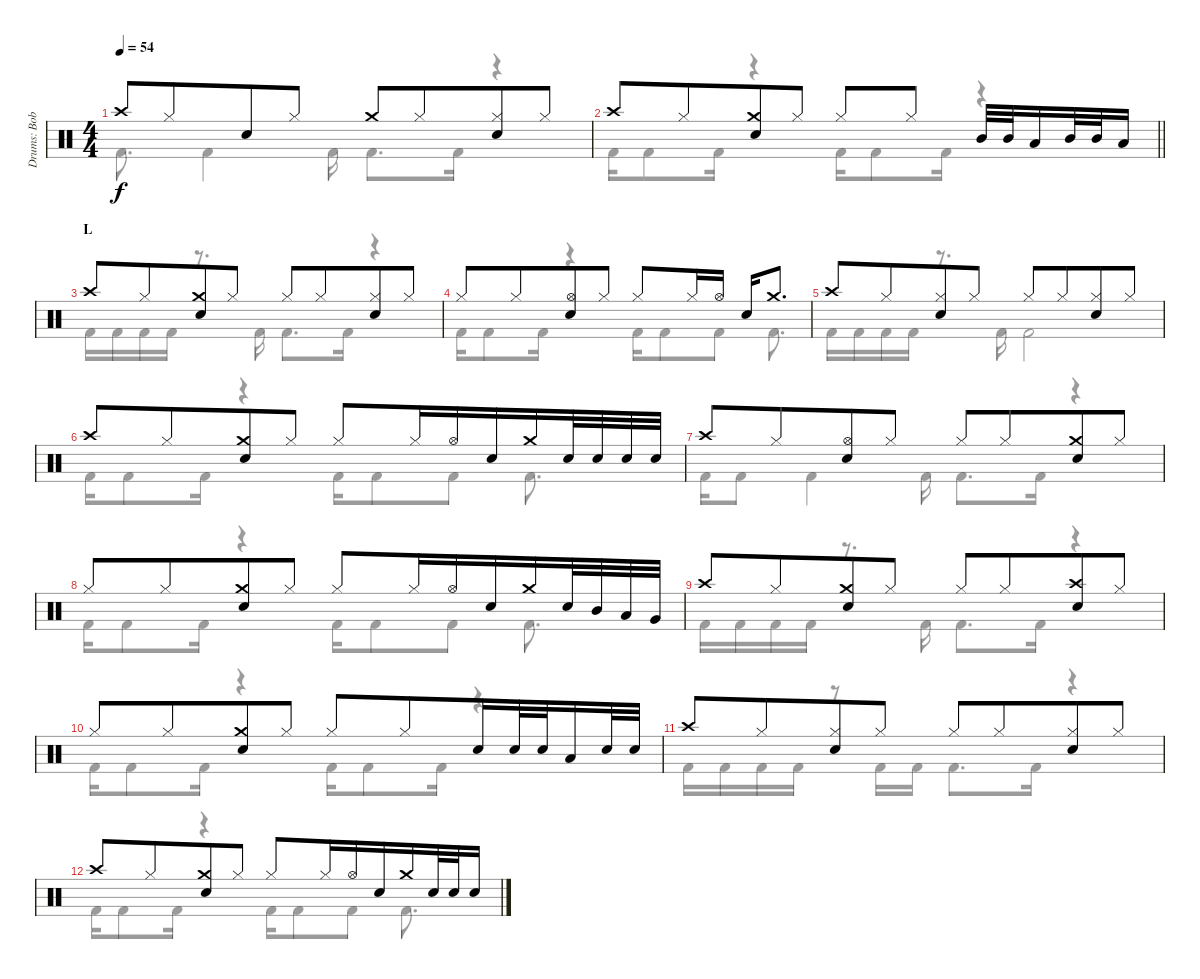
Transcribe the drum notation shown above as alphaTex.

\track ("Drums: Bobby" "Drums: Bob") {instrument percussion}
\staff {score}
\articulation defaults
\voice
\ts (4 4)
\tempo 54
\clef neutral
\ks c "Crash high (hit)".8{dy f} "Hi-Hat (closed)".8{beam merge} "Snare (hit) 2".8 "Hi-Hat (closed)".8 "Crash medium (hit)".8 "Hi-Hat (closed)".8{beam merge}
("Hi-Hat (closed)" "Snare (hit) 2").8 "Hi-Hat (closed)".8 |
\barLineRight lightlight "Crash high (hit)".8 "Hi-Hat (closed)".8{beam merge}
("Crash medium (hit)" "Snare (hit) 2").8 "Hi-Hat (closed)".8 "Hi-Hat (closed)".8 "Hi-Hat (closed)".8 "Mid Tom (hit)".32 "Mid Tom (hit)".32{beam merge} "Low Tom (hit)".16 "Mid Tom (hit)".32 "Mid Tom (hit)".32{beam merge} "Low Tom (hit)".16 |
\section ("" "L")
"Crash high (hit)".8 "Hi-Hat (closed)".8{beam merge} ("Crash medium (hit)" "Snare (hit) 2").8 "Hi-Hat (closed)".8 "Hi-Hat (closed)".8 "Hi-Hat (closed)".8{beam merge} ("Hi-Hat (closed)" "Snare (hit) 2").8 "Hi-Hat (closed)".8 |
"Hi-Hat (closed)".8 "Hi-Hat (closed)".8{beam merge} ("Hi-Hat (open)" "Snare (hit) 2").8 "Hi-Hat (closed)".8 "Hi-Hat (closed)".8 "Hi-Hat (closed)".16{beam merge} "Hi-Hat (open)".16 "Snare (hit) 2".16 "Crash medium (hit)".8{d} |
"Crash high (hit)".8 "Hi-Hat (closed)".8{beam merge} ("Hi-Hat (closed)" "Snare (hit) 2").8 "Hi-Hat (closed)".8 "Hi-Hat (closed)".8 "Hi-Hat (closed)".8{beam merge} ("Hi-Hat (closed)" "Snare (hit) 2").8 "Hi-Hat (closed)".8 |
"Crash high (hit)".8 "Hi-Hat (closed)".8{beam merge} ("Crash medium (hit)" "Snare (hit) 2").8 "Hi-Hat (closed)".8 "Hi-Hat (closed)".8 "Hi-Hat (closed)".16{beam merge} "Hi-Hat (open)".16{beam merge} "Snare (hit) 2".16 "Crash medium (hit)".16 "Electric Snare (hit)".32 "Electric Snare (hit)".32 "Electric Snare (hit)".32 "Electric Snare (hit)".32 |
"Crash high (hit)".8 "Hi-Hat (closed)".8{beam merge} ("Hi-Hat (open)" "Snare (hit) 2").8 "Hi-Hat (closed)".8 "Hi-Hat (closed)".8 "Hi-Hat (closed)".8{beam merge} ("Crash medium (hit)" "Snare (hit) 2").8 "Hi-Hat (closed)".8 |
"Hi-Hat (closed)".8 "Hi-Hat (closed)".8{beam merge} ("Crash medium (hit)" "Snare (hit) 2").8 "Hi-Hat (closed)".8 "Hi-Hat (closed)".8 "Hi-Hat (closed)".16{beam merge} "Hi-Hat (open)".16{beam merge} "Snare (hit) 2".16 "Crash medium (hit)".16 "Electric Snare (hit)".32 "Mid Tom (hit)".32 "Low Tom (hit)".32 "Very Low Tom (hit)".32 |
"Crash high (hit)".8 "Hi-Hat (closed)".8{beam merge} ("Crash medium (hit)" "Snare (hit) 2").8 "Hi-Hat (closed)".8 "Hi-Hat (closed)".8 "Hi-Hat (closed)".8{beam merge} ("Crash high (hit)" "Snare (hit) 2").8 "Hi-Hat (closed)".8 |
"Hi-Hat (closed)".8 "Hi-Hat (closed)".8{beam merge} ("Crash medium (hit)" "Snare (hit) 2").8 "Hi-Hat (closed)".8 "Hi-Hat (closed)".8 "Hi-Hat (closed)".8{beam merge} "Snare (hit) 2".16 "Electric Snare (hit)".32 "Electric Snare (hit)".32 "Low Tom (hit)".16 "Electric Snare (hit)".32 "Electric Snare (hit)".32 |
"Crash high (hit)".8 "Hi-Hat (closed)".8{beam merge} ("Hi-Hat (closed)" "Snare (hit) 2").8 "Hi-Hat (closed)".8 "Hi-Hat (closed)".8 "Hi-Hat (closed)".8{beam merge} ("Hi-Hat (closed)" "Snare (hit) 2").8 "Hi-Hat (closed)".8 |
"Crash high (hit)".8 "Hi-Hat (closed)".8{beam merge} ("Crash medium (hit)" "Snare (hit) 2").8 "Hi-Hat (closed)".8 "Hi-Hat (closed)".8 "Hi-Hat (closed)".16{beam merge} "Hi-Hat (open)".16{beam merge} "Snare (hit) 2".16 "Crash medium (hit)".16 "Electric Snare (hit)".32 "Electric Snare (hit)".32 "Snare (hit) 2".16
\voice
\clef neutral
\ottava regular
\simile none
\ks c "Kick (hit) 2".8{d dy f} "Kick (hit) 2".4 "Kick (hit) 2".16 "Kick (hit) 2".8{d} "Kick (hit) 2".16
r.4 |
\barLineRight lightlight "Kick (hit) 2".16 "Kick (hit) 2".8 "Kick (hit) 2".16
r.4 "Kick (hit) 2".16 "Kick (hit) 2".8 "Kick (hit) 2".16 r.4 |
"Kick (hit) 2".16 "Kick (hit) 2".16 "Kick (hit) 2".16 "Kick (hit) 2".16 r.8{d} "Kick (hit) 2".16 "Kick (hit) 2".8{d} "Kick (hit) 2".16 r.4 |
"Kick (hit) 2".16 "Kick (hit) 2".8 "Kick (hit) 2".16 r.4 "Kick (hit) 2".16 "Kick (hit) 2".8 "Kick (hit) 2".8 "Kick (hit) 2".8{d} |
"Kick (hit) 2".16 "Kick (hit) 2".16 "Kick (hit) 2".16 "Kick (hit) 2".16 r.8{d} "Kick (hit) 2".16 "Kick (hit) 2".2 |
"Kick (hit) 2".16 "Kick (hit) 2".8 "Kick (hit) 2".16 r.4 "Kick (hit) 2".16 "Kick (hit) 2".8 "Kick (hit) 2".8 "Kick (hit) 2".8{d} |
"Kick (hit) 2".16 "Kick (hit) 2".8 "Kick (hit) 2".4 "Kick (hit) 2".16 "Kick (hit) 2".8{d} "Kick (hit) 2".16 r.4 |
"Kick (hit) 2".16 "Kick (hit) 2".8 "Kick (hit) 2".16 r.4 "Kick (hit) 2".16 "Kick (hit) 2".8 "Kick (hit) 2".8 "Kick (hit) 2".8{d} |
"Kick (hit) 2".16 "Kick (hit) 2".16 "Kick (hit) 2".16 "Kick (hit) 2".16 r.8{d} "Kick (hit) 2".16 "Kick (hit) 2".8{d} "Kick (hit) 2".16 r.4 |
"Kick (hit) 2".16 "Kick (hit) 2".8 "Kick (hit) 2".16 r.4 "Kick (hit) 2".16 "Kick (hit) 2".8 "Kick (hit) 2".16 r.4 |
"Kick (hit) 2".16 "Kick (hit) 2".16 "Kick (hit) 2".16 "Kick (hit) 2".16 r.8 "Kick (hit) 2".16 "Kick (hit) 2".16 "Kick (hit) 2".8{d} "Kick (hit) 2".16 r.4 |
"Kick (hit) 2".16 "Kick (hit) 2".8 "Kick (hit) 2".16 r.4 "Kick (hit) 2".16 "Kick (hit) 2".8 "Kick (hit) 2".8 "Kick (hit) 2".8{d}
